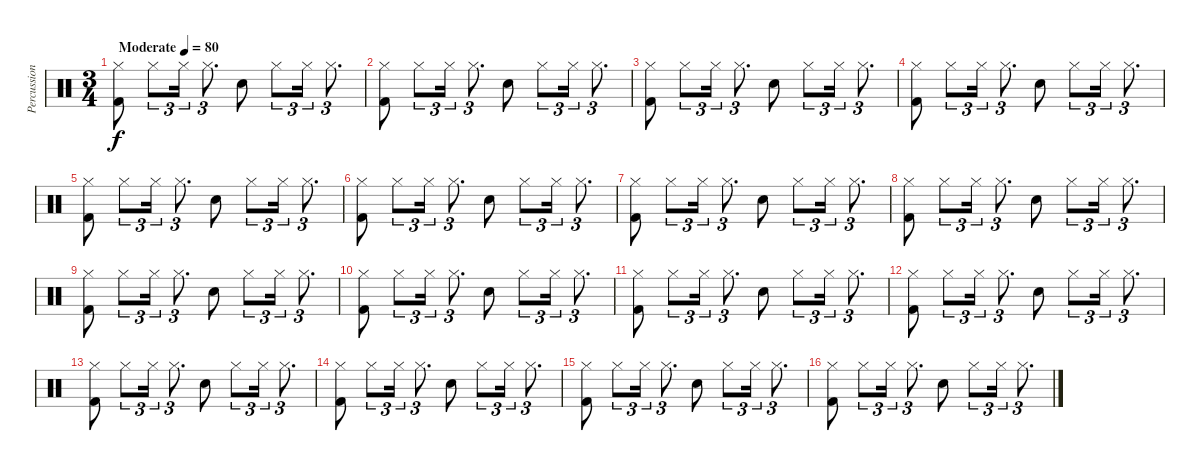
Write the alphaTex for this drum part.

\track ("Percussion" "Percussion") {instrument percussion}
\staff {score}
\articulation defaults
\ts (3 4)
\tempo (80 "Moderate")
\clef neutral
\ks c
("Hi-Hat (closed)" "Kick (hit) 2").8{dy f} "Hi-Hat (closed)".8{tu (3 2)} "Hi-Hat (closed)".16{tu (3 2)} "Hi-Hat (closed)".8{d tu (3 2)} "Snare (hit) 2".8 "Hi-Hat (closed)".8{tu (3 2)} "Hi-Hat (closed)".16{tu (3 2)} "Hi-Hat (closed)".8{d tu (3 2)} |
("Hi-Hat (closed)" "Kick (hit) 2").8 "Hi-Hat (closed)".8{tu (3 2)} "Hi-Hat (closed)".16{tu (3 2)} "Hi-Hat (closed)".8{d tu (3 2)} "Snare (hit) 2".8 "Hi-Hat (closed)".8{tu (3 2)} "Hi-Hat (closed)".16{tu (3 2)} "Hi-Hat (closed)".8{d tu (3 2)} |
("Hi-Hat (closed)" "Kick (hit) 2").8 "Hi-Hat (closed)".8{tu (3 2)} "Hi-Hat (closed)".16{tu (3 2)} "Hi-Hat (closed)".8{d tu (3 2)} "Snare (hit) 2".8 "Hi-Hat (closed)".8{tu (3 2)} "Hi-Hat (closed)".16{tu (3 2)} "Hi-Hat (closed)".8{d tu (3 2)} |
("Hi-Hat (closed)" "Kick (hit) 2").8 "Hi-Hat (closed)".8{tu (3 2)} "Hi-Hat (closed)".16{tu (3 2)} "Hi-Hat (closed)".8{d tu (3 2)} "Snare (hit) 2".8 "Hi-Hat (closed)".8{tu (3 2)} "Hi-Hat (closed)".16{tu (3 2)} "Hi-Hat (closed)".8{d tu (3 2)} |
("Hi-Hat (closed)" "Kick (hit) 2").8 "Hi-Hat (closed)".8{tu (3 2)} "Hi-Hat (closed)".16{tu (3 2)} "Hi-Hat (closed)".8{d tu (3 2)} "Snare (hit) 2".8 "Hi-Hat (closed)".8{tu (3 2)} "Hi-Hat (closed)".16{tu (3 2)} "Hi-Hat (closed)".8{d tu (3 2)} |
("Hi-Hat (closed)" "Kick (hit) 2").8 "Hi-Hat (closed)".8{tu (3 2)} "Hi-Hat (closed)".16{tu (3 2)} "Hi-Hat (closed)".8{d tu (3 2)} "Snare (hit) 2".8 "Hi-Hat (closed)".8{tu (3 2)} "Hi-Hat (closed)".16{tu (3 2)} "Hi-Hat (closed)".8{d tu (3 2)} |
("Hi-Hat (closed)" "Kick (hit) 2").8 "Hi-Hat (closed)".8{tu (3 2)} "Hi-Hat (closed)".16{tu (3 2)} "Hi-Hat (closed)".8{d tu (3 2)} "Snare (hit) 2".8 "Hi-Hat (closed)".8{tu (3 2)} "Hi-Hat (closed)".16{tu (3 2)} "Hi-Hat (closed)".8{d tu (3 2)} |
("Hi-Hat (closed)" "Kick (hit) 2").8 "Hi-Hat (closed)".8{tu (3 2)} "Hi-Hat (closed)".16{tu (3 2)} "Hi-Hat (closed)".8{d tu (3 2)} "Snare (hit) 2".8 "Hi-Hat (closed)".8{tu (3 2)} "Hi-Hat (closed)".16{tu (3 2)} "Hi-Hat (closed)".8{d tu (3 2)} |
("Hi-Hat (closed)" "Kick (hit) 2").8 "Hi-Hat (closed)".8{tu (3 2)} "Hi-Hat (closed)".16{tu (3 2)} "Hi-Hat (closed)".8{d tu (3 2)} "Snare (hit) 2".8 "Hi-Hat (closed)".8{tu (3 2)} "Hi-Hat (closed)".16{tu (3 2)} "Hi-Hat (closed)".8{d tu (3 2)} |
("Hi-Hat (closed)" "Kick (hit) 2").8 "Hi-Hat (closed)".8{tu (3 2)} "Hi-Hat (closed)".16{tu (3 2)} "Hi-Hat (closed)".8{d tu (3 2)} "Snare (hit) 2".8 "Hi-Hat (closed)".8{tu (3 2)} "Hi-Hat (closed)".16{tu (3 2)} "Hi-Hat (closed)".8{d tu (3 2)} |
("Hi-Hat (closed)" "Kick (hit) 2").8 "Hi-Hat (closed)".8{tu (3 2)} "Hi-Hat (closed)".16{tu (3 2)} "Hi-Hat (closed)".8{d tu (3 2)} "Snare (hit) 2".8 "Hi-Hat (closed)".8{tu (3 2)} "Hi-Hat (closed)".16{tu (3 2)} "Hi-Hat (closed)".8{d tu (3 2)} |
("Hi-Hat (closed)" "Kick (hit) 2").8 "Hi-Hat (closed)".8{tu (3 2)} "Hi-Hat (closed)".16{tu (3 2)} "Hi-Hat (closed)".8{d tu (3 2)} "Snare (hit) 2".8 "Hi-Hat (closed)".8{tu (3 2)} "Hi-Hat (closed)".16{tu (3 2)} "Hi-Hat (closed)".8{d tu (3 2)} |
("Hi-Hat (closed)" "Kick (hit) 2").8 "Hi-Hat (closed)".8{tu (3 2)} "Hi-Hat (closed)".16{tu (3 2)} "Hi-Hat (closed)".8{d tu (3 2)} "Snare (hit) 2".8 "Hi-Hat (closed)".8{tu (3 2)} "Hi-Hat (closed)".16{tu (3 2)} "Hi-Hat (closed)".8{d tu (3 2)} |
("Hi-Hat (closed)" "Kick (hit) 2").8 "Hi-Hat (closed)".8{tu (3 2)} "Hi-Hat (closed)".16{tu (3 2)} "Hi-Hat (closed)".8{d tu (3 2)} "Snare (hit) 2".8 "Hi-Hat (closed)".8{tu (3 2)} "Hi-Hat (closed)".16{tu (3 2)} "Hi-Hat (closed)".8{d tu (3 2)} |
("Hi-Hat (closed)" "Kick (hit) 2").8 "Hi-Hat (closed)".8{tu (3 2)} "Hi-Hat (closed)".16{tu (3 2)} "Hi-Hat (closed)".8{d tu (3 2)} "Snare (hit) 2".8 "Hi-Hat (closed)".8{tu (3 2)} "Hi-Hat (closed)".16{tu (3 2)} "Hi-Hat (closed)".8{d tu (3 2)} |
("Hi-Hat (closed)" "Kick (hit) 2").8 "Hi-Hat (closed)".8{tu (3 2)} "Hi-Hat (closed)".16{tu (3 2)} "Hi-Hat (closed)".8{d tu (3 2)} "Snare (hit) 2".8 "Hi-Hat (closed)".8{tu (3 2)} "Hi-Hat (closed)".16{tu (3 2)} "Hi-Hat (closed)".8{d tu (3 2)}
